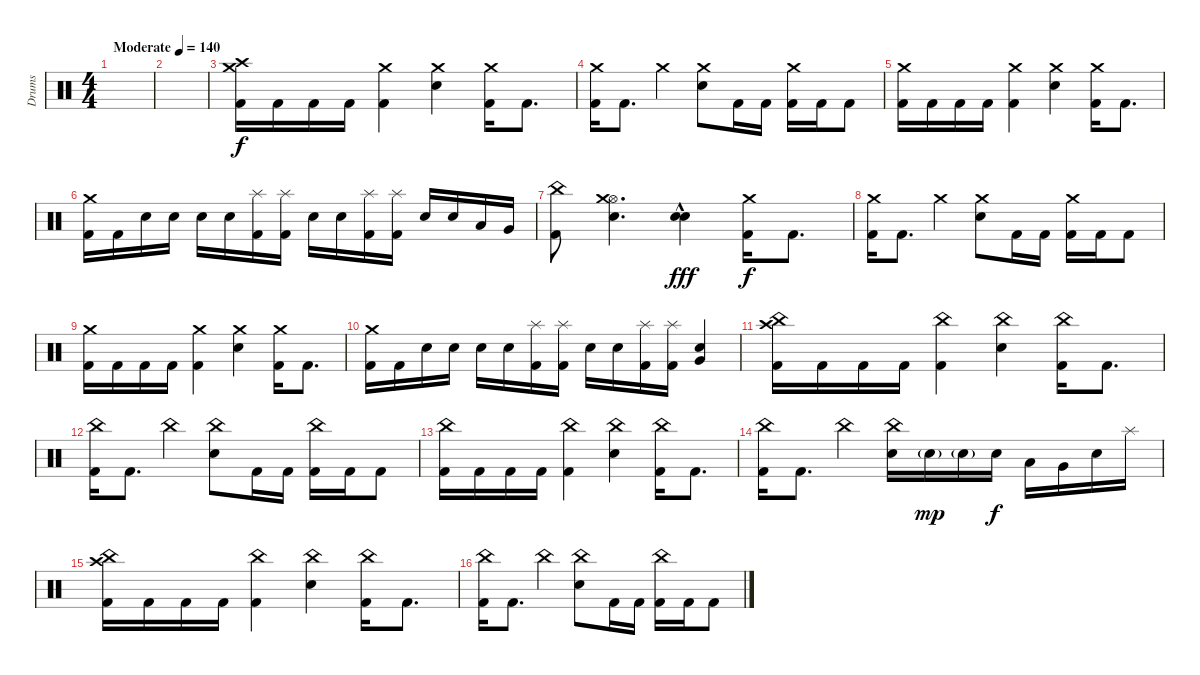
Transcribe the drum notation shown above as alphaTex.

\track ("Drums" "Drums") {instrument percussion}
\staff {score}
\articulation defaults
\ts (4 4)
\tempo (140 "Moderate")
\clef neutral
\ks c
|
|
("Crash medium (hit)" "Crash high (hit)" "Kick (hit) 2").16 "Kick (hit) 2".16 "Kick (hit) 2".16 "Kick (hit) 2".16 ("Crash medium (hit)" "Kick (hit) 2").4 ("Crash medium (hit)" "Electric Snare (hit)").4 ("Crash medium (hit)" "Kick (hit) 2").16 "Kick (hit) 2".8{d} |
("Crash medium (hit)" "Kick (hit) 2").16 "Kick (hit) 2".8{d} "Crash medium (hit)".4 ("Crash medium (hit)" "Electric Snare (hit)").8 "Kick (hit) 2".16 "Kick (hit) 2".16 ("Crash medium (hit)" "Kick (hit) 2").16 "Kick (hit) 2".16 "Kick (hit) 2".8 |
("Crash medium (hit)" "Kick (hit) 2").16 "Kick (hit) 2".16 "Kick (hit) 2".16 "Kick (hit) 2".16 ("Crash medium (hit)" "Kick (hit) 2").4 ("Crash medium (hit)" "Electric Snare (hit)").4 ("Crash medium (hit)" "Kick (hit) 2").16 "Kick (hit) 2".8{d} |
("Crash medium (hit)" "Kick (hit) 2").16 "Kick (hit) 2".16 "Electric Snare (hit)".16 "Electric Snare (hit)".16 "Electric Snare (hit)".16 "Electric Snare (hit)".16 ("Splash (hit)" "Kick (hit) 2").16 ("Splash (hit)" "Kick (hit) 2").16 "Electric Snare (hit)".16 "Electric Snare (hit)".16 ("Splash (hit)" "Kick (hit) 2").16 ("Splash (hit)" "Kick (hit) 2").16 "Electric Snare (hit)".16 "Electric Snare (hit)".16 "Low Tom (hit)".16 "Very Low Tom (hit)".16 |
("China (hit)" "Kick (hit) 2").8 ("Hi-Hat (open)" "Crash medium (hit)" "Electric Snare (hit)").4{d volume 0} ("Snare (hit) 2" "Electric Snare (hit)"{hac}).4{dy fff volume 16} ("Crash medium (hit)" "Kick (hit) 2").16{dy f} "Kick (hit) 2".8{d} |
("Crash medium (hit)" "Kick (hit) 2").16 "Kick (hit) 2".8{d} "Crash medium (hit)".4 ("Crash medium (hit)" "Electric Snare (hit)").8 "Kick (hit) 2".16 "Kick (hit) 2".16 ("Crash medium (hit)" "Kick (hit) 2").16 "Kick (hit) 2".16 "Kick (hit) 2".8 |
("Crash medium (hit)" "Kick (hit) 2").16 "Kick (hit) 2".16 "Kick (hit) 2".16 "Kick (hit) 2".16 ("Crash medium (hit)" "Kick (hit) 2").4 ("Crash medium (hit)" "Electric Snare (hit)").4 ("Crash medium (hit)" "Kick (hit) 2").16 "Kick (hit) 2".8{d} |
("Crash medium (hit)" "Kick (hit) 2").16 "Kick (hit) 2".16 "Electric Snare (hit)".16 "Electric Snare (hit)".16 "Electric Snare (hit)".16 "Electric Snare (hit)".16 ("Splash (hit)" "Kick (hit) 2").16 ("Splash (hit)" "Kick (hit) 2").16 "Electric Snare (hit)".16 "Electric Snare (hit)".16 ("Splash (hit)" "Kick (hit) 2").16 ("Splash (hit)" "Kick (hit) 2").16 ("Very Low Tom (hit)" "Electric Snare (hit)").4 |
("China (hit)" "Crash high (hit)" "Kick (hit) 2").16 "Kick (hit) 2".16 "Kick (hit) 2".16 "Kick (hit) 2".16 ("China (hit)" "Kick (hit) 2").4 ("China (hit)" "Electric Snare (hit)").4 ("China (hit)" "Kick (hit) 2").16 "Kick (hit) 2".8{d} |
("China (hit)" "Kick (hit) 2").16 "Kick (hit) 2".8{d} "China (hit)".4 ("China (hit)" "Electric Snare (hit)").8 "Kick (hit) 2".16 "Kick (hit) 2".16 ("China (hit)" "Kick (hit) 2").16 "Kick (hit) 2".16 "Kick (hit) 2".8 |
("China (hit)" "Kick (hit) 2").16 "Kick (hit) 2".16 "Kick (hit) 2".16 "Kick (hit) 2".16 ("China (hit)" "Kick (hit) 2").4 ("China (hit)" "Electric Snare (hit)").4 ("China (hit)" "Kick (hit) 2").16 "Kick (hit) 2".8{d} |
("China (hit)" "Kick (hit) 2").16 "Kick (hit) 2".8{d} "China (hit)".4 ("China (hit)" "Electric Snare (hit)").16 "Electric Snare (hit)"{g}.16{dy mp} "Electric Snare (hit)"{g}.16 "Electric Snare (hit)".16{dy f} "Low Tom (hit)".16 "Very Low Tom (hit)".16 "Electric Snare (hit)".16 "Splash (hit)".16 |
("China (hit)" "Crash high (hit)" "Kick (hit) 2").16 "Kick (hit) 2".16 "Kick (hit) 2".16 "Kick (hit) 2".16 ("China (hit)" "Kick (hit) 2").4 ("China (hit)" "Electric Snare (hit)").4 ("China (hit)" "Kick (hit) 2").16 "Kick (hit) 2".8{d} |
("China (hit)" "Kick (hit) 2").16 "Kick (hit) 2".8{d} "China (hit)".4 ("China (hit)" "Electric Snare (hit)").8 "Kick (hit) 2".16 "Kick (hit) 2".16 ("China (hit)" "Kick (hit) 2").16 "Kick (hit) 2".16 "Kick (hit) 2".8
